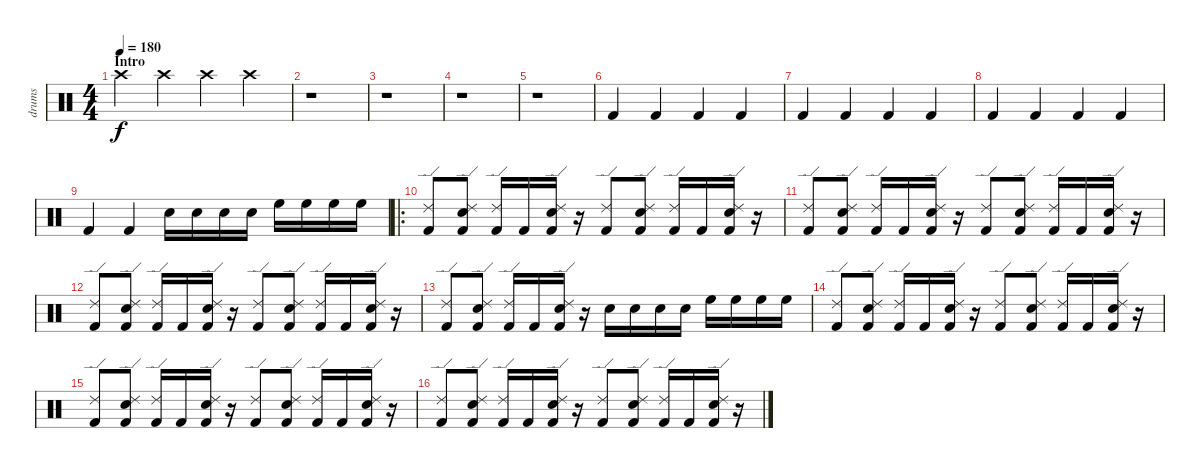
\track ("drums" "drums") {instrument percussion}
\staff {score}
\articulation defaults
\ts (4 4)
\section ("" "Intro")
\tempo 180
\clef neutral
\ks c "Crash high (hit)".4{dy f} "Crash high (hit)".4 "Crash high (hit)".4 "Crash high (hit)".4
|
r.1 |
r.1 |
r.1 |
r.1 |
"Kick (hit) 2".4 "Kick (hit) 2".4 "Kick (hit) 2".4 "Kick (hit) 2".4 |
"Kick (hit) 2".4 "Kick (hit) 2".4 "Kick (hit) 2".4 "Kick (hit) 2".4 |
"Kick (hit) 2".4 "Kick (hit) 2".4 "Kick (hit) 2".4 "Kick (hit) 2".4 |
"Kick (hit) 2".4 "Kick (hit) 2".4 "Snare (hit) 2".16 "Snare (hit) 2".16 "Snare (hit) 2".16 "Snare (hit) 2".16 "High Floor Tom (hit)".16 "High Floor Tom (hit)".16 "High Floor Tom (hit)".16 "High Floor Tom (hit)".16 |
\ro
("Ride (edge) 2" "Kick (hit) 2").8 ("Snare (hit) 2" "Ride (edge) 2" "Kick (hit) 2").8 ("Ride (edge) 2" "Kick (hit) 2").16 "Kick (hit) 2".16 ("Snare (hit) 2" "Ride (edge) 2" "Kick (hit) 2").16 r.16 ("Ride (edge) 2" "Kick (hit) 2").8 ("Snare (hit) 2" "Ride (edge) 2" "Kick (hit) 2").8 ("Ride (edge) 2" "Kick (hit) 2").16 "Kick (hit) 2".16 ("Snare (hit) 2" "Ride (edge) 2" "Kick (hit) 2").16 r.16 |
("Ride (edge) 2" "Kick (hit) 2").8 ("Snare (hit) 2" "Ride (edge) 2" "Kick (hit) 2").8 ("Ride (edge) 2" "Kick (hit) 2").16 "Kick (hit) 2".16 ("Snare (hit) 2" "Ride (edge) 2" "Kick (hit) 2").16 r.16 ("Ride (edge) 2" "Kick (hit) 2").8 ("Snare (hit) 2" "Ride (edge) 2" "Kick (hit) 2").8 ("Ride (edge) 2" "Kick (hit) 2").16 "Kick (hit) 2".16 ("Snare (hit) 2" "Ride (edge) 2" "Kick (hit) 2").16 r.16 |
("Ride (edge) 2" "Kick (hit) 2").8 ("Snare (hit) 2" "Ride (edge) 2" "Kick (hit) 2").8 ("Ride (edge) 2" "Kick (hit) 2").16 "Kick (hit) 2".16 ("Snare (hit) 2" "Ride (edge) 2" "Kick (hit) 2").16 r.16 ("Ride (edge) 2" "Kick (hit) 2").8 ("Snare (hit) 2" "Ride (edge) 2" "Kick (hit) 2").8 ("Ride (edge) 2" "Kick (hit) 2").16 "Kick (hit) 2".16 ("Snare (hit) 2" "Ride (edge) 2" "Kick (hit) 2").16 r.16 |
("Ride (edge) 2" "Kick (hit) 2").8 ("Snare (hit) 2" "Ride (edge) 2" "Kick (hit) 2").8 ("Ride (edge) 2" "Kick (hit) 2").16 "Kick (hit) 2".16 ("Snare (hit) 2" "Ride (edge) 2" "Kick (hit) 2").16 r.16 "Snare (hit) 2".16 "Snare (hit) 2".16 "Snare (hit) 2".16 "Snare (hit) 2".16 "High Floor Tom (hit)".16 "High Floor Tom (hit)".16 "High Floor Tom (hit)".16 "High Floor Tom (hit)".16 |
("Ride (edge) 2" "Kick (hit) 2").8 ("Snare (hit) 2" "Ride (edge) 2" "Kick (hit) 2").8 ("Ride (edge) 2" "Kick (hit) 2").16 "Kick (hit) 2".16 ("Snare (hit) 2" "Ride (edge) 2" "Kick (hit) 2").16 r.16 ("Ride (edge) 2" "Kick (hit) 2").8 ("Snare (hit) 2" "Ride (edge) 2" "Kick (hit) 2").8 ("Ride (edge) 2" "Kick (hit) 2").16 "Kick (hit) 2".16 ("Snare (hit) 2" "Ride (edge) 2" "Kick (hit) 2").16 r.16 |
("Ride (edge) 2" "Kick (hit) 2").8 ("Snare (hit) 2" "Ride (edge) 2" "Kick (hit) 2").8 ("Ride (edge) 2" "Kick (hit) 2").16 "Kick (hit) 2".16 ("Snare (hit) 2" "Ride (edge) 2" "Kick (hit) 2").16 r.16 ("Ride (edge) 2" "Kick (hit) 2").8 ("Snare (hit) 2" "Ride (edge) 2" "Kick (hit) 2").8 ("Ride (edge) 2" "Kick (hit) 2").16 "Kick (hit) 2".16 ("Snare (hit) 2" "Ride (edge) 2" "Kick (hit) 2").16 r.16 |
("Ride (edge) 2" "Kick (hit) 2").8 ("Snare (hit) 2" "Ride (edge) 2" "Kick (hit) 2").8 ("Ride (edge) 2" "Kick (hit) 2").16 "Kick (hit) 2".16 ("Snare (hit) 2" "Ride (edge) 2" "Kick (hit) 2").16 r.16 ("Ride (edge) 2" "Kick (hit) 2").8 ("Snare (hit) 2" "Ride (edge) 2" "Kick (hit) 2").8 ("Ride (edge) 2" "Kick (hit) 2").16 "Kick (hit) 2".16 ("Snare (hit) 2" "Ride (edge) 2" "Kick (hit) 2").16 r.16
